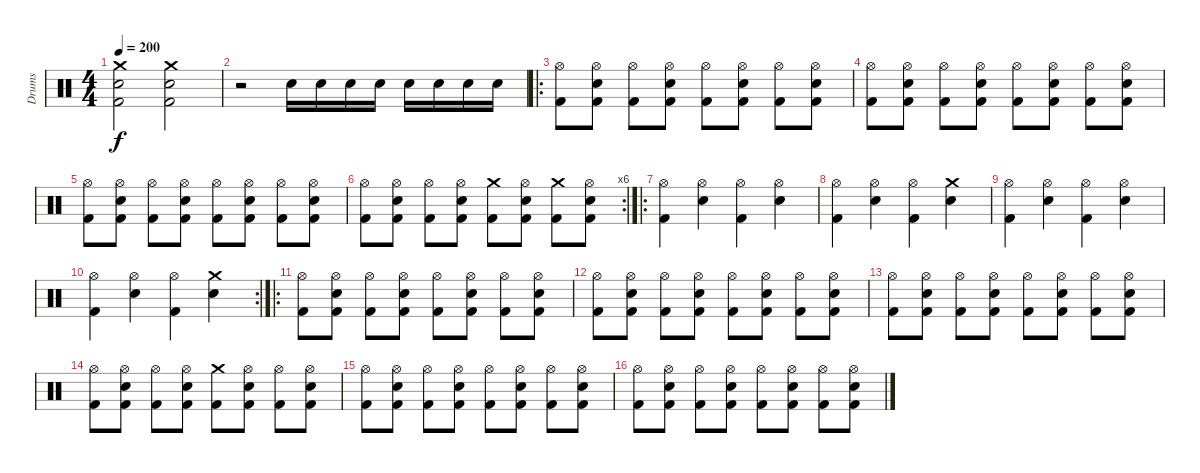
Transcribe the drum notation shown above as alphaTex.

\track ("Drums" "Drums") {instrument percussion}
\staff {score}
\articulation defaults
\ts (4 4)
\tempo 200
\clef neutral
\ks c
("Crash medium (hit)" "Electric Snare (hit)" "Kick (hit) 2").2{dy f} ("Crash medium (hit)" "Electric Snare (hit)" "Kick (hit) 2").2 |
r.2 "Electric Snare (hit)".16 "Electric Snare (hit)".16 "Electric Snare (hit)".16 "Electric Snare (hit)".16 "Electric Snare (hit)".16 "Electric Snare (hit)".16 "Electric Snare (hit)".16 "Electric Snare (hit)".16 |
\ro
("Hi-Hat (open)" "Kick (hit) 2").8 ("Hi-Hat (open)" "Electric Snare (hit)" "Kick (hit) 2").8 ("Hi-Hat (open)" "Kick (hit) 2").8 ("Hi-Hat (open)" "Electric Snare (hit)" "Kick (hit) 2").8 ("Hi-Hat (open)" "Kick (hit) 2").8 ("Hi-Hat (open)" "Electric Snare (hit)" "Kick (hit) 2").8 ("Hi-Hat (open)" "Kick (hit) 2").8 ("Hi-Hat (open)" "Electric Snare (hit)" "Kick (hit) 2").8 |
("Hi-Hat (open)" "Kick (hit) 2").8 ("Hi-Hat (open)" "Electric Snare (hit)" "Kick (hit) 2").8 ("Hi-Hat (open)" "Kick (hit) 2").8 ("Hi-Hat (open)" "Electric Snare (hit)" "Kick (hit) 2").8 ("Hi-Hat (open)" "Kick (hit) 2").8 ("Hi-Hat (open)" "Electric Snare (hit)" "Kick (hit) 2").8 ("Hi-Hat (open)" "Kick (hit) 2").8 ("Hi-Hat (open)" "Electric Snare (hit)" "Kick (hit) 2").8 |
("Hi-Hat (open)" "Kick (hit) 2").8 ("Hi-Hat (open)" "Electric Snare (hit)" "Kick (hit) 2").8 ("Hi-Hat (open)" "Kick (hit) 2").8 ("Hi-Hat (open)" "Electric Snare (hit)" "Kick (hit) 2").8 ("Hi-Hat (open)" "Kick (hit) 2").8 ("Hi-Hat (open)" "Electric Snare (hit)" "Kick (hit) 2").8 ("Hi-Hat (open)" "Kick (hit) 2").8 ("Hi-Hat (open)" "Electric Snare (hit)" "Kick (hit) 2").8 |
\rc 6
("Hi-Hat (open)" "Kick (hit) 2").8 ("Hi-Hat (open)" "Electric Snare (hit)" "Kick (hit) 2").8 ("Hi-Hat (open)" "Kick (hit) 2").8 ("Hi-Hat (open)" "Electric Snare (hit)" "Kick (hit) 2").8 ("Crash medium (hit)" "Kick (hit) 2").8 ("Hi-Hat (open)" "Electric Snare (hit)" "Kick (hit) 2").8 ("Crash medium (hit)" "Kick (hit) 2").8 ("Hi-Hat (open)" "Electric Snare (hit)" "Kick (hit) 2").8 |
\ro
("Hi-Hat (open)" "Kick (hit) 2").4 ("Hi-Hat (open)" "Electric Snare (hit)").4 ("Hi-Hat (open)" "Kick (hit) 2").4 ("Hi-Hat (open)" "Electric Snare (hit)").4 |
("Hi-Hat (open)" "Kick (hit) 2").4 ("Hi-Hat (open)" "Electric Snare (hit)").4 ("Hi-Hat (open)" "Kick (hit) 2").4 ("Crash medium (hit)" "Electric Snare (hit)").4 |
("Hi-Hat (open)" "Kick (hit) 2").4 ("Hi-Hat (open)" "Electric Snare (hit)").4 ("Hi-Hat (open)" "Kick (hit) 2").4 ("Hi-Hat (open)" "Electric Snare (hit)").4 |
\rc 2
("Hi-Hat (open)" "Kick (hit) 2").4 ("Hi-Hat (open)" "Electric Snare (hit)").4 ("Hi-Hat (open)" "Kick (hit) 2").4 ("Crash medium (hit)" "Electric Snare (hit)").4 |
\ro
("Hi-Hat (open)" "Kick (hit) 2").8 ("Hi-Hat (open)" "Electric Snare (hit)" "Kick (hit) 2").8 ("Hi-Hat (open)" "Kick (hit) 2").8 ("Hi-Hat (open)" "Electric Snare (hit)" "Kick (hit) 2").8 ("Hi-Hat (open)" "Kick (hit) 2").8 ("Hi-Hat (open)" "Electric Snare (hit)" "Kick (hit) 2").8 ("Hi-Hat (open)" "Kick (hit) 2").8 ("Hi-Hat (open)" "Electric Snare (hit)" "Kick (hit) 2").8 |
("Hi-Hat (open)" "Kick (hit) 2").8 ("Hi-Hat (open)" "Electric Snare (hit)" "Kick (hit) 2").8 ("Hi-Hat (open)" "Kick (hit) 2").8 ("Hi-Hat (open)" "Electric Snare (hit)" "Kick (hit) 2").8 ("Hi-Hat (open)" "Kick (hit) 2").8 ("Hi-Hat (open)" "Electric Snare (hit)" "Kick (hit) 2").8 ("Hi-Hat (open)" "Kick (hit) 2").8 ("Hi-Hat (open)" "Electric Snare (hit)" "Kick (hit) 2").8 |
("Hi-Hat (open)" "Kick (hit) 2").8 ("Hi-Hat (open)" "Electric Snare (hit)" "Kick (hit) 2").8 ("Hi-Hat (open)" "Kick (hit) 2").8 ("Hi-Hat (open)" "Electric Snare (hit)" "Kick (hit) 2").8 ("Hi-Hat (open)" "Kick (hit) 2").8 ("Hi-Hat (open)" "Electric Snare (hit)" "Kick (hit) 2").8 ("Hi-Hat (open)" "Kick (hit) 2").8 ("Hi-Hat (open)" "Electric Snare (hit)" "Kick (hit) 2").8 |
("Hi-Hat (open)" "Kick (hit) 2").8 ("Hi-Hat (open)" "Electric Snare (hit)" "Kick (hit) 2").8 ("Hi-Hat (open)" "Kick (hit) 2").8 ("Hi-Hat (open)" "Electric Snare (hit)" "Kick (hit) 2").8 ("Crash medium (hit)" "Kick (hit) 2").8 ("Hi-Hat (open)" "Electric Snare (hit)" "Kick (hit) 2").8 ("Hi-Hat (open)" "Kick (hit) 2").8 ("Hi-Hat (open)" "Electric Snare (hit)" "Kick (hit) 2").8 |
("Hi-Hat (open)" "Kick (hit) 2").8 ("Hi-Hat (open)" "Electric Snare (hit)" "Kick (hit) 2").8 ("Hi-Hat (open)" "Kick (hit) 2").8 ("Hi-Hat (open)" "Electric Snare (hit)" "Kick (hit) 2").8 ("Hi-Hat (open)" "Kick (hit) 2").8 ("Hi-Hat (open)" "Electric Snare (hit)" "Kick (hit) 2").8 ("Hi-Hat (open)" "Kick (hit) 2").8 ("Hi-Hat (open)" "Electric Snare (hit)" "Kick (hit) 2").8 |
("Hi-Hat (open)" "Kick (hit) 2").8 ("Hi-Hat (open)" "Electric Snare (hit)" "Kick (hit) 2").8 ("Hi-Hat (open)" "Kick (hit) 2").8 ("Hi-Hat (open)" "Electric Snare (hit)" "Kick (hit) 2").8 ("Hi-Hat (open)" "Kick (hit) 2").8 ("Hi-Hat (open)" "Electric Snare (hit)" "Kick (hit) 2").8 ("Hi-Hat (open)" "Kick (hit) 2").8 ("Hi-Hat (open)" "Electric Snare (hit)" "Kick (hit) 2").8
